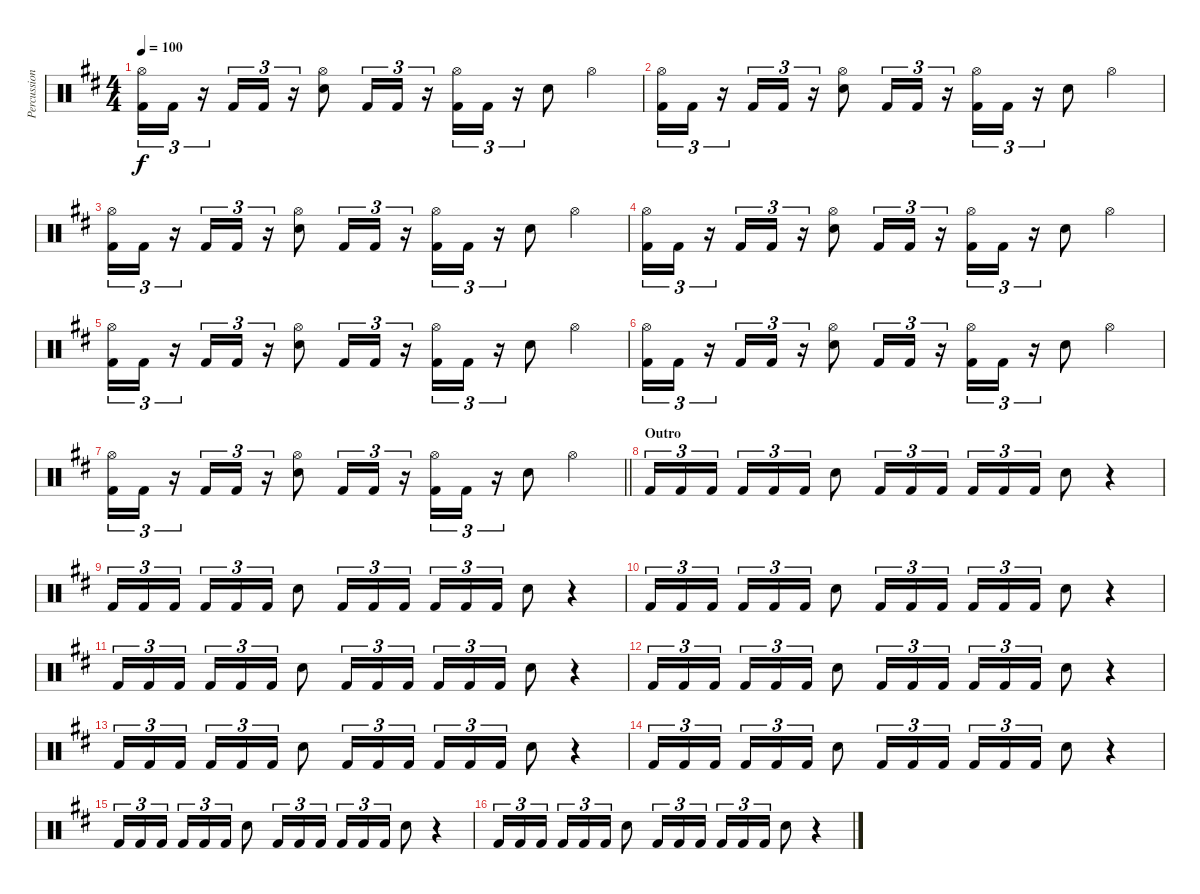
\track ("Percussion" "Percussion") {instrument percussion}
\staff {score}
\articulation defaults
\ts (4 4)
\tempo 100
\clef neutral
\ks d
("Hi-Hat (open)" "Kick (hit) 2").16{tu (3 2) dy f} "Kick (hit) 2".16{tu (3 2)} r.16{tu (3 2)} "Kick (hit) 2".16{tu (3 2)} "Kick (hit) 2".16{tu (3 2)} r.16{tu (3 2)} ("Hi-Hat (open)" "Electric Snare (hit)").8 "Kick (hit) 2".16{tu (3 2)} "Kick (hit) 2".16{tu (3 2)} r.16{tu (3 2)} ("Hi-Hat (open)" "Kick (hit) 2").16{tu (3 2)} "Kick (hit) 2".16{tu (3 2)} r.16{tu (3 2)} "Electric Snare (hit)".8 "Hi-Hat (open)".4 |
("Hi-Hat (open)" "Kick (hit) 2").16{tu (3 2)} "Kick (hit) 2".16{tu (3 2)} r.16{tu (3 2)} "Kick (hit) 2".16{tu (3 2)} "Kick (hit) 2".16{tu (3 2)} r.16{tu (3 2)} ("Hi-Hat (open)" "Electric Snare (hit)").8 "Kick (hit) 2".16{tu (3 2)} "Kick (hit) 2".16{tu (3 2)} r.16{tu (3 2)} ("Hi-Hat (open)" "Kick (hit) 2").16{tu (3 2)} "Kick (hit) 2".16{tu (3 2)} r.16{tu (3 2)} "Electric Snare (hit)".8 "Hi-Hat (open)".4 |
("Hi-Hat (open)" "Kick (hit) 2").16{tu (3 2)} "Kick (hit) 2".16{tu (3 2)} r.16{tu (3 2)} "Kick (hit) 2".16{tu (3 2)} "Kick (hit) 2".16{tu (3 2)} r.16{tu (3 2)} ("Hi-Hat (open)" "Electric Snare (hit)").8 "Kick (hit) 2".16{tu (3 2)} "Kick (hit) 2".16{tu (3 2)} r.16{tu (3 2)} ("Hi-Hat (open)" "Kick (hit) 2").16{tu (3 2)} "Kick (hit) 2".16{tu (3 2)} r.16{tu (3 2)} "Electric Snare (hit)".8 "Hi-Hat (open)".4 |
("Hi-Hat (open)" "Kick (hit) 2").16{tu (3 2)} "Kick (hit) 2".16{tu (3 2)} r.16{tu (3 2)} "Kick (hit) 2".16{tu (3 2)} "Kick (hit) 2".16{tu (3 2)} r.16{tu (3 2)} ("Hi-Hat (open)" "Electric Snare (hit)").8 "Kick (hit) 2".16{tu (3 2)} "Kick (hit) 2".16{tu (3 2)} r.16{tu (3 2)} ("Hi-Hat (open)" "Kick (hit) 2").16{tu (3 2)} "Kick (hit) 2".16{tu (3 2)} r.16{tu (3 2)} "Electric Snare (hit)".8 "Hi-Hat (open)".4 |
("Hi-Hat (open)" "Kick (hit) 2").16{tu (3 2)} "Kick (hit) 2".16{tu (3 2)} r.16{tu (3 2)} "Kick (hit) 2".16{tu (3 2)} "Kick (hit) 2".16{tu (3 2)} r.16{tu (3 2)} ("Hi-Hat (open)" "Electric Snare (hit)").8 "Kick (hit) 2".16{tu (3 2)} "Kick (hit) 2".16{tu (3 2)} r.16{tu (3 2)} ("Hi-Hat (open)" "Kick (hit) 2").16{tu (3 2)} "Kick (hit) 2".16{tu (3 2)} r.16{tu (3 2)} "Electric Snare (hit)".8 "Hi-Hat (open)".4 |
("Hi-Hat (open)" "Kick (hit) 2").16{tu (3 2)} "Kick (hit) 2".16{tu (3 2)} r.16{tu (3 2)} "Kick (hit) 2".16{tu (3 2)} "Kick (hit) 2".16{tu (3 2)} r.16{tu (3 2)} ("Hi-Hat (open)" "Electric Snare (hit)").8 "Kick (hit) 2".16{tu (3 2)} "Kick (hit) 2".16{tu (3 2)} r.16{tu (3 2)} ("Hi-Hat (open)" "Kick (hit) 2").16{tu (3 2)} "Kick (hit) 2".16{tu (3 2)} r.16{tu (3 2)} "Electric Snare (hit)".8 "Hi-Hat (open)".4 |
\barLineRight lightlight
("Hi-Hat (open)" "Kick (hit) 2").16{tu (3 2)} "Kick (hit) 2".16{tu (3 2)} r.16{tu (3 2)} "Kick (hit) 2".16{tu (3 2)} "Kick (hit) 2".16{tu (3 2)} r.16{tu (3 2)} ("Hi-Hat (open)" "Electric Snare (hit)").8 "Kick (hit) 2".16{tu (3 2)} "Kick (hit) 2".16{tu (3 2)} r.16{tu (3 2)} ("Hi-Hat (open)" "Kick (hit) 2").16{tu (3 2)} "Kick (hit) 2".16{tu (3 2)} r.16{tu (3 2)} "Electric Snare (hit)".8 "Hi-Hat (open)".4 |
\section ("" "Outro")
"Kick (hit) 2".16{tu (3 2)} "Kick (hit) 2".16{tu (3 2)} "Kick (hit) 2".16{tu (3 2) beam splitsecondary} "Kick (hit) 2".16{tu (3 2)} "Kick (hit) 2".16{tu (3 2)} "Kick (hit) 2".16{tu (3 2)} "Electric Snare (hit)".8 "Kick (hit) 2".16{tu (3 2)} "Kick (hit) 2".16{tu (3 2)} "Kick (hit) 2".16{tu (3 2)} "Kick (hit) 2".16{tu (3 2)} "Kick (hit) 2".16{tu (3 2)} "Kick (hit) 2".16{tu (3 2)} "Electric Snare (hit)".8 r.4 |
"Kick (hit) 2".16{tu (3 2)} "Kick (hit) 2".16{tu (3 2)} "Kick (hit) 2".16{tu (3 2) beam splitsecondary} "Kick (hit) 2".16{tu (3 2)} "Kick (hit) 2".16{tu (3 2)} "Kick (hit) 2".16{tu (3 2)} "Electric Snare (hit)".8 "Kick (hit) 2".16{tu (3 2)} "Kick (hit) 2".16{tu (3 2)} "Kick (hit) 2".16{tu (3 2)} "Kick (hit) 2".16{tu (3 2)} "Kick (hit) 2".16{tu (3 2)} "Kick (hit) 2".16{tu (3 2)} "Electric Snare (hit)".8 r.4 |
"Kick (hit) 2".16{tu (3 2)} "Kick (hit) 2".16{tu (3 2)} "Kick (hit) 2".16{tu (3 2) beam splitsecondary} "Kick (hit) 2".16{tu (3 2)} "Kick (hit) 2".16{tu (3 2)} "Kick (hit) 2".16{tu (3 2)} "Electric Snare (hit)".8 "Kick (hit) 2".16{tu (3 2)} "Kick (hit) 2".16{tu (3 2)} "Kick (hit) 2".16{tu (3 2)} "Kick (hit) 2".16{tu (3 2)} "Kick (hit) 2".16{tu (3 2)} "Kick (hit) 2".16{tu (3 2)} "Electric Snare (hit)".8 r.4 |
"Kick (hit) 2".16{tu (3 2)} "Kick (hit) 2".16{tu (3 2)} "Kick (hit) 2".16{tu (3 2) beam splitsecondary} "Kick (hit) 2".16{tu (3 2)} "Kick (hit) 2".16{tu (3 2)} "Kick (hit) 2".16{tu (3 2)} "Electric Snare (hit)".8 "Kick (hit) 2".16{tu (3 2)} "Kick (hit) 2".16{tu (3 2)} "Kick (hit) 2".16{tu (3 2)} "Kick (hit) 2".16{tu (3 2)} "Kick (hit) 2".16{tu (3 2)} "Kick (hit) 2".16{tu (3 2)} "Electric Snare (hit)".8 r.4 |
"Kick (hit) 2".16{tu (3 2)} "Kick (hit) 2".16{tu (3 2)} "Kick (hit) 2".16{tu (3 2) beam splitsecondary} "Kick (hit) 2".16{tu (3 2)} "Kick (hit) 2".16{tu (3 2)} "Kick (hit) 2".16{tu (3 2)} "Electric Snare (hit)".8 "Kick (hit) 2".16{tu (3 2)} "Kick (hit) 2".16{tu (3 2)} "Kick (hit) 2".16{tu (3 2)} "Kick (hit) 2".16{tu (3 2)} "Kick (hit) 2".16{tu (3 2)} "Kick (hit) 2".16{tu (3 2)} "Electric Snare (hit)".8 r.4 |
"Kick (hit) 2".16{tu (3 2)} "Kick (hit) 2".16{tu (3 2)} "Kick (hit) 2".16{tu (3 2) beam splitsecondary} "Kick (hit) 2".16{tu (3 2)} "Kick (hit) 2".16{tu (3 2)} "Kick (hit) 2".16{tu (3 2)} "Electric Snare (hit)".8 "Kick (hit) 2".16{tu (3 2)} "Kick (hit) 2".16{tu (3 2)} "Kick (hit) 2".16{tu (3 2)} "Kick (hit) 2".16{tu (3 2)} "Kick (hit) 2".16{tu (3 2)} "Kick (hit) 2".16{tu (3 2)} "Electric Snare (hit)".8 r.4 |
"Kick (hit) 2".16{tu (3 2)} "Kick (hit) 2".16{tu (3 2)} "Kick (hit) 2".16{tu (3 2) beam splitsecondary} "Kick (hit) 2".16{tu (3 2)} "Kick (hit) 2".16{tu (3 2)} "Kick (hit) 2".16{tu (3 2)} "Electric Snare (hit)".8 "Kick (hit) 2".16{tu (3 2)} "Kick (hit) 2".16{tu (3 2)} "Kick (hit) 2".16{tu (3 2)} "Kick (hit) 2".16{tu (3 2)} "Kick (hit) 2".16{tu (3 2)} "Kick (hit) 2".16{tu (3 2)} "Electric Snare (hit)".8 r.4 |
"Kick (hit) 2".16{tu (3 2)} "Kick (hit) 2".16{tu (3 2)} "Kick (hit) 2".16{tu (3 2) beam splitsecondary} "Kick (hit) 2".16{tu (3 2)} "Kick (hit) 2".16{tu (3 2)} "Kick (hit) 2".16{tu (3 2)} "Electric Snare (hit)".8 "Kick (hit) 2".16{tu (3 2)} "Kick (hit) 2".16{tu (3 2)} "Kick (hit) 2".16{tu (3 2)} "Kick (hit) 2".16{tu (3 2)} "Kick (hit) 2".16{tu (3 2)} "Kick (hit) 2".16{tu (3 2)} "Electric Snare (hit)".8 r.4 |
"Kick (hit) 2".16{tu (3 2)} "Kick (hit) 2".16{tu (3 2)} "Kick (hit) 2".16{tu (3 2) beam splitsecondary} "Kick (hit) 2".16{tu (3 2)} "Kick (hit) 2".16{tu (3 2)} "Kick (hit) 2".16{tu (3 2)} "Electric Snare (hit)".8 "Kick (hit) 2".16{tu (3 2)} "Kick (hit) 2".16{tu (3 2)} "Kick (hit) 2".16{tu (3 2)} "Kick (hit) 2".16{tu (3 2)} "Kick (hit) 2".16{tu (3 2)} "Kick (hit) 2".16{tu (3 2)} "Electric Snare (hit)".8 r.4
